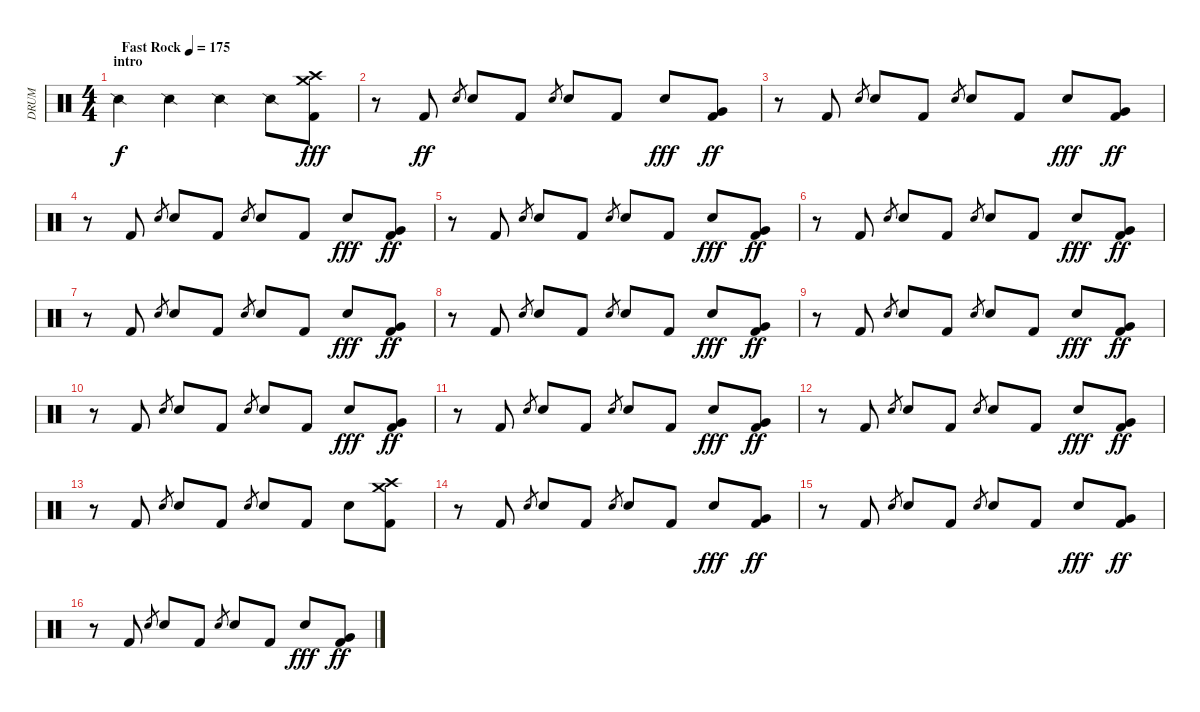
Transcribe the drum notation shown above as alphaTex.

\track ("DRUM" "DRUM") {instrument percussion}
\staff {score}
\articulation defaults
\ts (4 4)
\section ("" "intro")
\tempo (175 "Fast Rock")
\clef neutral
\ks c "Snare (side stick) 2".4{dy f} "Snare (side stick) 2".4 "Snare (side stick) 2".4 "Snare (side stick) 2".8
("Crash medium (hit)" "Crash high (hit)" "Kick (hit) 2").8{dy fff} |
r.8 "Kick (hit) 2".8{dy ff} "Electric Snare (hit)".8{gr} "Snare (hit) 2".8 "Kick (hit) 2".8 "Electric Snare (hit)".8{gr} "Snare (hit) 2".8 "Kick (hit) 2".8 "Snare (hit) 2".8{dy fff} ("Very Low Tom (hit)" "Kick (hit) 2").8{dy ff} |
r.8 "Kick (hit) 2".8 "Electric Snare (hit)".8{gr} "Snare (hit) 2".8 "Kick (hit) 2".8 "Electric Snare (hit)".8{gr} "Snare (hit) 2".8 "Kick (hit) 2".8 "Snare (hit) 2".8{dy fff} ("Very Low Tom (hit)" "Kick (hit) 2").8{dy ff} |
r.8 "Kick (hit) 2".8 "Electric Snare (hit)".8{gr} "Snare (hit) 2".8 "Kick (hit) 2".8 "Electric Snare (hit)".8{gr} "Snare (hit) 2".8 "Kick (hit) 2".8 "Snare (hit) 2".8{dy fff} ("Very Low Tom (hit)" "Kick (hit) 2").8{dy ff} |
r.8 "Kick (hit) 2".8 "Electric Snare (hit)".8{gr} "Snare (hit) 2".8 "Kick (hit) 2".8 "Electric Snare (hit)".8{gr} "Snare (hit) 2".8 "Kick (hit) 2".8 "Snare (hit) 2".8{dy fff} ("Very Low Tom (hit)" "Kick (hit) 2").8{dy ff} |
r.8 "Kick (hit) 2".8 "Electric Snare (hit)".8{gr} "Snare (hit) 2".8 "Kick (hit) 2".8 "Electric Snare (hit)".8{gr} "Snare (hit) 2".8 "Kick (hit) 2".8 "Snare (hit) 2".8{dy fff} ("Very Low Tom (hit)" "Kick (hit) 2").8{dy ff} |
r.8 "Kick (hit) 2".8 "Electric Snare (hit)".8{gr} "Snare (hit) 2".8 "Kick (hit) 2".8 "Electric Snare (hit)".8{gr} "Snare (hit) 2".8 "Kick (hit) 2".8 "Snare (hit) 2".8{dy fff} ("Very Low Tom (hit)" "Kick (hit) 2").8{dy ff} |
r.8 "Kick (hit) 2".8 "Electric Snare (hit)".8{gr} "Snare (hit) 2".8 "Kick (hit) 2".8 "Electric Snare (hit)".8{gr} "Snare (hit) 2".8 "Kick (hit) 2".8 "Snare (hit) 2".8{dy fff} ("Very Low Tom (hit)" "Kick (hit) 2").8{dy ff} |
r.8 "Kick (hit) 2".8 "Electric Snare (hit)".8{gr} "Snare (hit) 2".8 "Kick (hit) 2".8 "Electric Snare (hit)".8{gr} "Snare (hit) 2".8 "Kick (hit) 2".8 "Snare (hit) 2".8{dy fff} ("Very Low Tom (hit)" "Kick (hit) 2").8{dy ff} |
r.8 "Kick (hit) 2".8 "Electric Snare (hit)".8{gr} "Snare (hit) 2".8 "Kick (hit) 2".8 "Electric Snare (hit)".8{gr} "Snare (hit) 2".8 "Kick (hit) 2".8 "Snare (hit) 2".8{dy fff} ("Very Low Tom (hit)" "Kick (hit) 2").8{dy ff} |
r.8 "Kick (hit) 2".8 "Electric Snare (hit)".8{gr} "Snare (hit) 2".8 "Kick (hit) 2".8 "Electric Snare (hit)".8{gr} "Snare (hit) 2".8 "Kick (hit) 2".8 "Snare (hit) 2".8{dy fff} ("Very Low Tom (hit)" "Kick (hit) 2").8{dy ff} |
r.8 "Kick (hit) 2".8 "Electric Snare (hit)".8{gr} "Snare (hit) 2".8 "Kick (hit) 2".8 "Electric Snare (hit)".8{gr} "Snare (hit) 2".8 "Kick (hit) 2".8 "Snare (hit) 2".8{dy fff} ("Very Low Tom (hit)" "Kick (hit) 2").8{dy ff} |
r.8 "Kick (hit) 2".8 "Electric Snare (hit)".8{gr} "Snare (hit) 2".8 "Kick (hit) 2".8 "Electric Snare (hit)".8{gr} "Snare (hit) 2".8 "Kick (hit) 2".8 "Snare (hit) 2".8 ("Crash medium (hit)" "Crash high (hit)" "Kick (hit) 2").8 |
r.8 "Kick (hit) 2".8 "Electric Snare (hit)".8{gr} "Snare (hit) 2".8 "Kick (hit) 2".8 "Electric Snare (hit)".8{gr} "Snare (hit) 2".8 "Kick (hit) 2".8 "Snare (hit) 2".8{dy fff} ("Very Low Tom (hit)" "Kick (hit) 2").8{dy ff} |
r.8 "Kick (hit) 2".8 "Electric Snare (hit)".8{gr} "Snare (hit) 2".8 "Kick (hit) 2".8 "Electric Snare (hit)".8{gr} "Snare (hit) 2".8 "Kick (hit) 2".8 "Snare (hit) 2".8{dy fff} ("Very Low Tom (hit)" "Kick (hit) 2").8{dy ff} |
r.8 "Kick (hit) 2".8 "Electric Snare (hit)".8{gr} "Snare (hit) 2".8 "Kick (hit) 2".8 "Electric Snare (hit)".8{gr} "Snare (hit) 2".8 "Kick (hit) 2".8 "Snare (hit) 2".8{dy fff} ("Very Low Tom (hit)" "Kick (hit) 2").8{dy ff}
